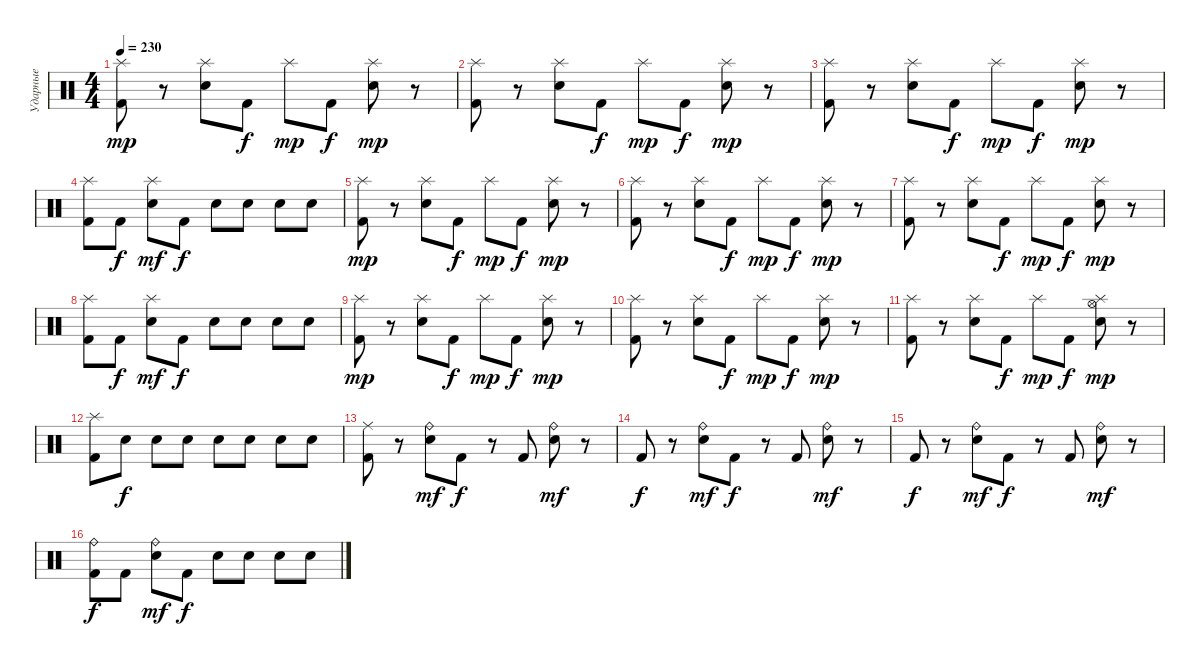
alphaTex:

\track ("Ударные" "Ударные") {instrument percussion}
\staff {score}
\articulation defaults
\ts (4 4)
\tempo 230
\clef neutral
\ks c
("Splash (hit)" "Kick (hit) 2").8{dy mp} r.8 ("Splash (hit)" "Snare (hit) 2").8 "Kick (hit) 2".8{dy f} "Splash (hit)".8{dy mp} "Kick (hit) 2".8{dy f} ("Splash (hit)" "Snare (hit) 2").8{dy mp} r.8 |
("Splash (hit)" "Kick (hit) 2").8 r.8 ("Splash (hit)" "Snare (hit) 2").8 "Kick (hit) 2".8{dy f} "Splash (hit)".8{dy mp} "Kick (hit) 2".8{dy f} ("Splash (hit)" "Snare (hit) 2").8{dy mp} r.8 |
("Splash (hit)" "Kick (hit) 2").8 r.8 ("Splash (hit)" "Snare (hit) 2").8 "Kick (hit) 2".8{dy f} "Splash (hit)".8{dy mp} "Kick (hit) 2".8{dy f} ("Splash (hit)" "Snare (hit) 2").8{dy mp} r.8 |
("Splash (hit)" "Kick (hit) 2").8 "Kick (hit) 2".8{dy f} ("Splash (hit)" "Snare (hit) 2").8{dy mf} "Kick (hit) 2".8{dy f} "Snare (hit) 2".8 "Snare (hit) 2".8 "Snare (hit) 2".8 "Snare (hit) 2".8 |
("Splash (hit)" "Kick (hit) 2").8{dy mp} r.8 ("Splash (hit)" "Snare (hit) 2").8 "Kick (hit) 2".8{dy f} "Splash (hit)".8{dy mp} "Kick (hit) 2".8{dy f} ("Splash (hit)" "Snare (hit) 2").8{dy mp} r.8 |
("Splash (hit)" "Kick (hit) 2").8 r.8 ("Splash (hit)" "Snare (hit) 2").8 "Kick (hit) 2".8{dy f} "Splash (hit)".8{dy mp} "Kick (hit) 2".8{dy f} ("Splash (hit)" "Snare (hit) 2").8{dy mp} r.8 |
("Splash (hit)" "Kick (hit) 2").8 r.8 ("Splash (hit)" "Snare (hit) 2").8 "Kick (hit) 2".8{dy f} "Splash (hit)".8{dy mp} "Kick (hit) 2".8{dy f} ("Splash (hit)" "Snare (hit) 2").8{dy mp} r.8 |
("Splash (hit)" "Kick (hit) 2").8 "Kick (hit) 2".8{dy f} ("Splash (hit)" "Snare (hit) 2").8{dy mf} "Kick (hit) 2".8{dy f} "Snare (hit) 2".8 "Snare (hit) 2".8 "Snare (hit) 2".8 "Snare (hit) 2".8 |
("Splash (hit)" "Kick (hit) 2").8{dy mp} r.8 ("Splash (hit)" "Snare (hit) 2").8 "Kick (hit) 2".8{dy f} "Splash (hit)".8{dy mp} "Kick (hit) 2".8{dy f} ("Splash (hit)" "Snare (hit) 2").8{dy mp} r.8 |
("Splash (hit)" "Kick (hit) 2").8 r.8 ("Splash (hit)" "Snare (hit) 2").8 "Kick (hit) 2".8{dy f} "Splash (hit)".8{dy mp} "Kick (hit) 2".8{dy f} ("Splash (hit)" "Snare (hit) 2").8{dy mp} r.8 |
("Splash (hit)" "Kick (hit) 2").8 r.8 ("Splash (hit)" "Snare (hit) 2").8 "Kick (hit) 2".8{dy f} "Splash (hit)".8{dy mp} "Kick (hit) 2".8{dy f} ("Hi-Hat (open)" "Splash (hit)" "Snare (hit) 2").8{dy mp} r.8 |
("Splash (hit)" "Kick (hit) 2").8 "Snare (hit) 2".8{dy f} "Snare (hit) 2".8 "Snare (hit) 2".8 "Snare (hit) 2".8 "Snare (hit) 2".8 "Snare (hit) 2".8 "Snare (hit) 2".8 |
("Ride (middle)" "Kick (hit) 2").8 r.8 ("Ride (bell)" "Snare (hit) 2").8{dy mf} "Kick (hit) 2".8{dy f} r.8 "Kick (hit) 2".8 ("Ride (bell)" "Snare (hit) 2").8{dy mf} r.8 |
"Kick (hit) 2".8{dy f} r.8 ("Ride (bell)" "Snare (hit) 2").8{dy mf} "Kick (hit) 2".8{dy f} r.8 "Kick (hit) 2".8 ("Ride (bell)" "Snare (hit) 2").8{dy mf} r.8 |
"Kick (hit) 2".8{dy f} r.8 ("Ride (bell)" "Snare (hit) 2").8{dy mf} "Kick (hit) 2".8{dy f} r.8 "Kick (hit) 2".8 ("Ride (bell)" "Snare (hit) 2").8{dy mf} r.8 |
("Ride (bell)" "Kick (hit) 2").8{dy f} "Kick (hit) 2".8 ("Ride (bell)" "Snare (hit) 2").8{dy mf} "Kick (hit) 2".8{dy f} "Snare (hit) 2".8 "Snare (hit) 2".8 "Snare (hit) 2".8 "Snare (hit) 2".8
